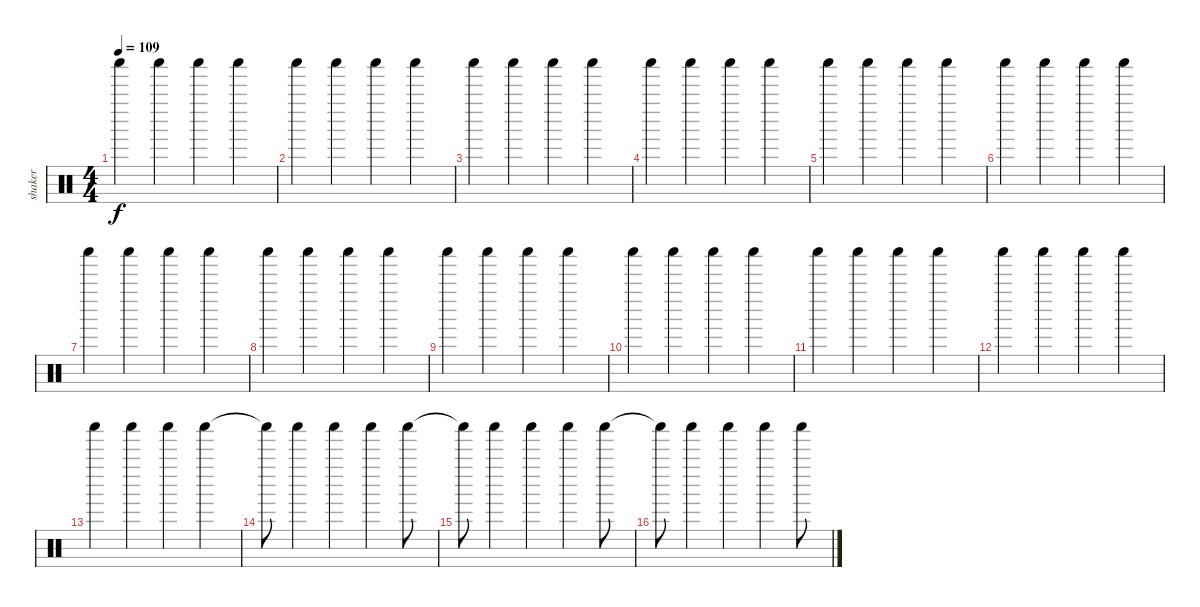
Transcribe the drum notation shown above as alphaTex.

\track ("shaker" "shaker") {instrument percussion}
\staff {score}
\articulation defaults
\ts (4 4)
\tempo 109
\clef neutral
\ks c "Shaker (hit)".4{dy f} "Shaker (hit)".4 "Shaker (hit)".4 "Shaker (hit)".4
|
"Shaker (hit)".4 "Shaker (hit)".4 "Shaker (hit)".4 "Shaker (hit)".4 |
"Shaker (hit)".4 "Shaker (hit)".4 "Shaker (hit)".4 "Shaker (hit)".4 |
"Shaker (hit)".4 "Shaker (hit)".4 "Shaker (hit)".4 "Shaker (hit)".4 |
"Shaker (hit)".4 "Shaker (hit)".4 "Shaker (hit)".4 "Shaker (hit)".4 |
"Shaker (hit)".4 "Shaker (hit)".4 "Shaker (hit)".4 "Shaker (hit)".4 |
"Shaker (hit)".4 "Shaker (hit)".4 "Shaker (hit)".4 "Shaker (hit)".4 |
"Shaker (hit)".4 "Shaker (hit)".4 "Shaker (hit)".4 "Shaker (hit)".4 |
"Shaker (hit)".4 "Shaker (hit)".4 "Shaker (hit)".4 "Shaker (hit)".4 |
"Shaker (hit)".4 "Shaker (hit)".4 "Shaker (hit)".4 "Shaker (hit)".4 |
"Shaker (hit)".4 "Shaker (hit)".4 "Shaker (hit)".4 "Shaker (hit)".4 |
"Shaker (hit)".4 "Shaker (hit)".4 "Shaker (hit)".4 "Shaker (hit)".4 |
"Shaker (hit)".4 "Shaker (hit)".4 "Shaker (hit)".4 "Shaker (hit)".4 |
"Shaker (hit)"{t}.8 "Shaker (hit)".4 "Shaker (hit)".4 "Shaker (hit)".4 "Shaker (hit)".8 |
"Shaker (hit)"{t}.8 "Shaker (hit)".4 "Shaker (hit)".4 "Shaker (hit)".4 "Shaker (hit)".8 |
"Shaker (hit)"{t}.8 "Shaker (hit)".4 "Shaker (hit)".4 "Shaker (hit)".4 "Shaker (hit)".8
